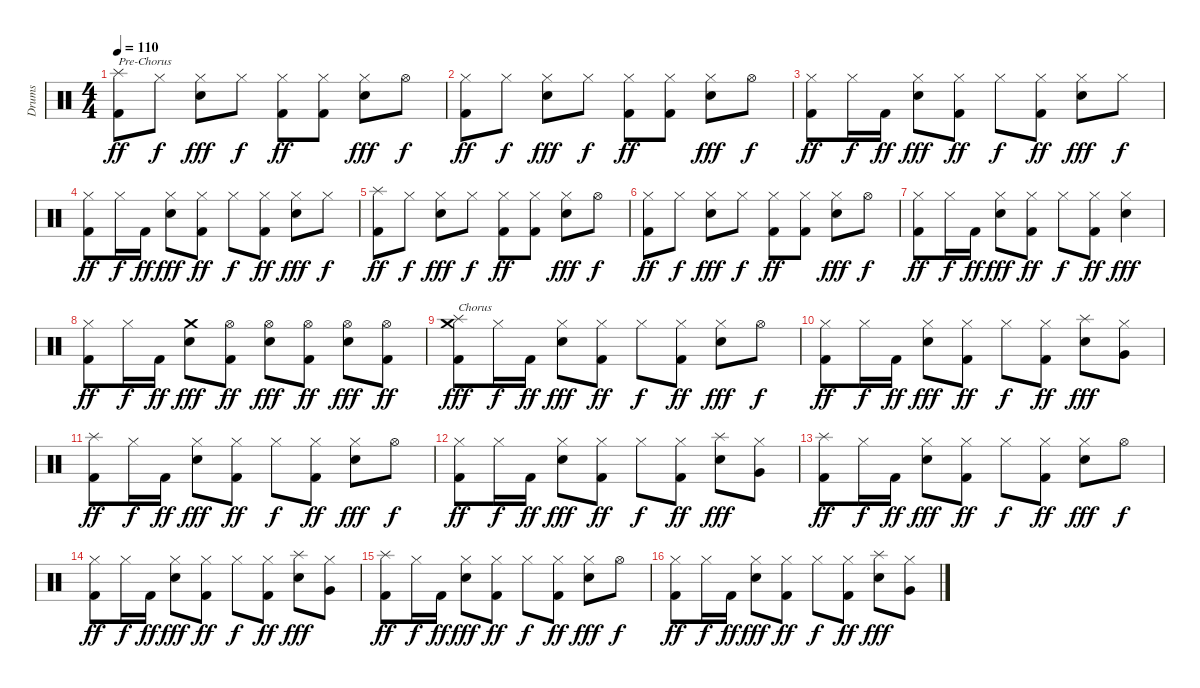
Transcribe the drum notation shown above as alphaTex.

\track ("Drums" "Drums") {instrument percussion}
\staff {score}
\articulation defaults
\ts (4 4)
\tempo 110
\clef neutral
\ks c
("Splash (hit)" "Kick (hit) 2").8{txt "Pre-Chorus" dy ff} "Hi-Hat (closed)".8{dy f} ("Hi-Hat (closed)" "Electric Snare (hit)").8{dy fff} "Hi-Hat (closed)".8{dy f} ("Hi-Hat (closed)" "Kick (hit) 2").8{dy ff} ("Hi-Hat (closed)" "Kick (hit) 2").8 ("Hi-Hat (closed)" "Electric Snare (hit)").8{dy fff} "Hi-Hat (open)".8{dy f} |
("Hi-Hat (closed)" "Kick (hit) 2").8{dy ff} "Hi-Hat (closed)".8{dy f} ("Hi-Hat (closed)" "Electric Snare (hit)").8{dy fff} "Hi-Hat (closed)".8{dy f} ("Hi-Hat (closed)" "Kick (hit) 2").8{dy ff} ("Hi-Hat (closed)" "Kick (hit) 2").8 ("Hi-Hat (closed)" "Electric Snare (hit)").8{dy fff} "Hi-Hat (open)".8{dy f} |
("Hi-Hat (closed)" "Kick (hit) 2").8{dy ff} "Hi-Hat (closed)".16{dy f} "Kick (hit) 2".16{dy ff} ("Hi-Hat (closed)" "Electric Snare (hit)").8{dy fff} ("Hi-Hat (closed)" "Kick (hit) 2").8{dy ff} "Hi-Hat (closed)".8{dy f} ("Hi-Hat (closed)" "Kick (hit) 2").8{dy ff} ("Hi-Hat (closed)" "Electric Snare (hit)").8{dy fff} "Hi-Hat (closed)".8{dy f} |
("Hi-Hat (closed)" "Kick (hit) 2").8{dy ff} "Hi-Hat (closed)".16{dy f} "Kick (hit) 2".16{dy ff} ("Hi-Hat (closed)" "Electric Snare (hit)").8{dy fff} ("Hi-Hat (closed)" "Kick (hit) 2").8{dy ff} "Hi-Hat (closed)".8{dy f} ("Hi-Hat (closed)" "Kick (hit) 2").8{dy ff} ("Hi-Hat (closed)" "Electric Snare (hit)").8{dy fff} "Hi-Hat (closed)".8{dy f} |
("Splash (hit)" "Kick (hit) 2").8{dy ff} "Hi-Hat (closed)".8{dy f} ("Hi-Hat (closed)" "Electric Snare (hit)").8{dy fff} "Hi-Hat (closed)".8{dy f} ("Hi-Hat (closed)" "Kick (hit) 2").8{dy ff} ("Hi-Hat (closed)" "Kick (hit) 2").8 ("Hi-Hat (closed)" "Electric Snare (hit)").8{dy fff} "Hi-Hat (open)".8{dy f} |
("Hi-Hat (closed)" "Kick (hit) 2").8{dy ff} "Hi-Hat (closed)".8{dy f} ("Hi-Hat (closed)" "Electric Snare (hit)").8{dy fff} "Hi-Hat (closed)".8{dy f} ("Hi-Hat (closed)" "Kick (hit) 2").8{dy ff} ("Hi-Hat (closed)" "Kick (hit) 2").8 ("Hi-Hat (closed)" "Electric Snare (hit)").8{dy fff} "Hi-Hat (open)".8{dy f} |
("Hi-Hat (closed)" "Kick (hit) 2").8{dy ff} "Hi-Hat (closed)".16{dy f} "Kick (hit) 2".16{dy ff} ("Hi-Hat (closed)" "Electric Snare (hit)").8{dy fff} ("Hi-Hat (closed)" "Kick (hit) 2").8{dy ff} "Hi-Hat (closed)".8{dy f} ("Hi-Hat (closed)" "Kick (hit) 2").8{dy ff} ("Hi-Hat (closed)" "Electric Snare (hit)").4{dy fff} |
("Hi-Hat (closed)" "Kick (hit) 2").8{dy ff} "Hi-Hat (closed)".16{dy f} "Kick (hit) 2".16{dy ff} ("Crash medium (hit)" "Electric Snare (hit)").8{dy fff} ("Hi-Hat (open)" "Kick (hit) 2").8{dy ff} ("Hi-Hat (open)" "Electric Snare (hit)").8{dy fff} ("Hi-Hat (open)" "Kick (hit) 2").8{dy ff} ("Hi-Hat (open)" "Electric Snare (hit)").8{dy fff} ("Hi-Hat (open)" "Kick (hit) 2").8{dy ff} |
("Splash (hit)" "Crash medium (hit)" "Kick (hit) 2").8{txt "Chorus" dy fff} "Hi-Hat (closed)".16{dy f} "Kick (hit) 2".16{dy ff} ("Hi-Hat (closed)" "Electric Snare (hit)").8{dy fff} ("Hi-Hat (closed)" "Kick (hit) 2").8{dy ff} "Hi-Hat (closed)".8{dy f} ("Hi-Hat (closed)" "Kick (hit) 2").8{dy ff} ("Hi-Hat (closed)" "Electric Snare (hit)").8{dy fff} "Hi-Hat (open)".8{dy f} |
("Hi-Hat (closed)" "Kick (hit) 2").8{dy ff} "Hi-Hat (closed)".16{dy f} "Kick (hit) 2".16{dy ff} ("Hi-Hat (closed)" "Electric Snare (hit)").8{dy fff} ("Hi-Hat (closed)" "Kick (hit) 2").8{dy ff} "Hi-Hat (closed)".8{dy f} ("Hi-Hat (closed)" "Kick (hit) 2").8{dy ff} ("Splash (hit)" "Electric Snare (hit)").8{dy fff} ("Hi-Hat (closed)" "Very Low Tom (hit)").8 |
("Splash (hit)" "Kick (hit) 2").8{dy ff} "Hi-Hat (closed)".16{dy f} "Kick (hit) 2".16{dy ff} ("Hi-Hat (closed)" "Electric Snare (hit)").8{dy fff} ("Hi-Hat (closed)" "Kick (hit) 2").8{dy ff} "Hi-Hat (closed)".8{dy f} ("Hi-Hat (closed)" "Kick (hit) 2").8{dy ff} ("Hi-Hat (closed)" "Electric Snare (hit)").8{dy fff} "Hi-Hat (open)".8{dy f} |
("Hi-Hat (closed)" "Kick (hit) 2").8{dy ff} "Hi-Hat (closed)".16{dy f} "Kick (hit) 2".16{dy ff} ("Hi-Hat (closed)" "Electric Snare (hit)").8{dy fff} ("Hi-Hat (closed)" "Kick (hit) 2").8{dy ff} "Hi-Hat (closed)".8{dy f} ("Hi-Hat (closed)" "Kick (hit) 2").8{dy ff} ("Splash (hit)" "Electric Snare (hit)").8{dy fff} ("Hi-Hat (closed)" "Very Low Tom (hit)").8 |
("Splash (hit)" "Kick (hit) 2").8{dy ff} "Hi-Hat (closed)".16{dy f} "Kick (hit) 2".16{dy ff} ("Hi-Hat (closed)" "Electric Snare (hit)").8{dy fff} ("Hi-Hat (closed)" "Kick (hit) 2").8{dy ff} "Hi-Hat (closed)".8{dy f} ("Hi-Hat (closed)" "Kick (hit) 2").8{dy ff} ("Hi-Hat (closed)" "Electric Snare (hit)").8{dy fff} "Hi-Hat (open)".8{dy f} |
("Hi-Hat (closed)" "Kick (hit) 2").8{dy ff} "Hi-Hat (closed)".16{dy f} "Kick (hit) 2".16{dy ff} ("Hi-Hat (closed)" "Electric Snare (hit)").8{dy fff} ("Hi-Hat (closed)" "Kick (hit) 2").8{dy ff} "Hi-Hat (closed)".8{dy f} ("Hi-Hat (closed)" "Kick (hit) 2").8{dy ff} ("Splash (hit)" "Electric Snare (hit)").8{dy fff} ("Hi-Hat (closed)" "Very Low Tom (hit)").8 |
("Splash (hit)" "Kick (hit) 2").8{dy ff} "Hi-Hat (closed)".16{dy f} "Kick (hit) 2".16{dy ff} ("Hi-Hat (closed)" "Electric Snare (hit)").8{dy fff} ("Hi-Hat (closed)" "Kick (hit) 2").8{dy ff} "Hi-Hat (closed)".8{dy f} ("Hi-Hat (closed)" "Kick (hit) 2").8{dy ff} ("Hi-Hat (closed)" "Electric Snare (hit)").8{dy fff} "Hi-Hat (open)".8{dy f} |
("Hi-Hat (closed)" "Kick (hit) 2").8{dy ff} "Hi-Hat (closed)".16{dy f} "Kick (hit) 2".16{dy ff} ("Hi-Hat (closed)" "Electric Snare (hit)").8{dy fff} ("Hi-Hat (closed)" "Kick (hit) 2").8{dy ff} "Hi-Hat (closed)".8{dy f} ("Hi-Hat (closed)" "Kick (hit) 2").8{dy ff} ("Splash (hit)" "Electric Snare (hit)").8{dy fff} ("Hi-Hat (closed)" "Very Low Tom (hit)").8
